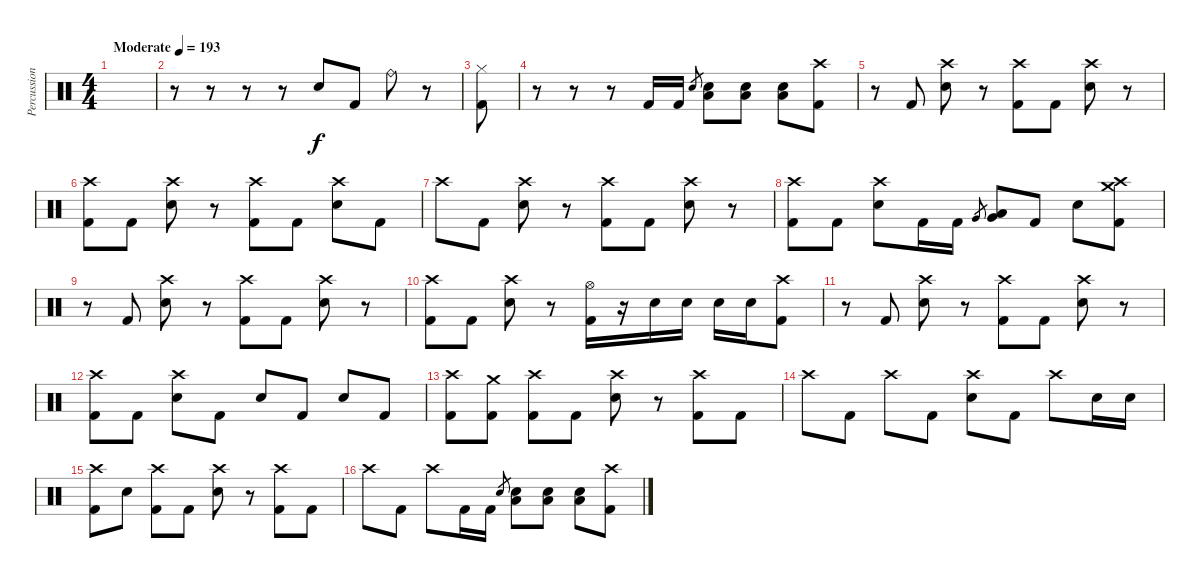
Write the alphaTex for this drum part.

\track ("Percussion" "Percussion") {instrument percussion}
\staff {score}
\articulation defaults
\ts (4 4)
\tempo (193 "Moderate")
\clef neutral
\ks c
|
r.8 r.8 r.8 r.8 "Snare (hit) 2".8 "Kick (hit) 2".8 "Ride (bell)".8 r.8 |
("Hi-Hat (closed)" "Kick (hit) 2").8 |
r.8 r.8 r.8 "Kick (hit) 2".16 "Kick (hit) 2".16 "Snare (hit) 2".8{gr} ("Low Floor Tom (hit)" "Snare (hit) 2").8 ("Low Floor Tom (hit)" "Snare (hit) 2").8 ("Low Floor Tom (hit)" "Snare (hit) 2").8 ("Crash high (hit)" "Kick (hit) 2").8 |
r.8 "Kick (hit) 2".8 ("Crash high (hit)" "Snare (hit) 2").8 r.8 ("Crash high (hit)" "Kick (hit) 2").8 "Kick (hit) 2".8 ("Crash high (hit)" "Snare (hit) 2").8 r.8 |
("Crash high (hit)" "Kick (hit) 2").8 "Kick (hit) 2".8 ("Crash high (hit)" "Snare (hit) 2").8 r.8 ("Crash high (hit)" "Kick (hit) 2").8 "Kick (hit) 2".8 ("Crash high (hit)" "Snare (hit) 2").8 "Kick (hit) 2".8 |
"Crash high (hit)".8 "Kick (hit) 2".8 ("Crash high (hit)" "Snare (hit) 2").8 r.8 ("Crash high (hit)" "Kick (hit) 2").8 "Kick (hit) 2".8 ("Crash high (hit)" "Snare (hit) 2").8 r.8 |
("Crash high (hit)" "Kick (hit) 2").8 "Kick (hit) 2".8 ("Crash high (hit)" "Snare (hit) 2").8 "Kick (hit) 2".16 "Kick (hit) 2".16 "Very Low Tom (hit)".8{gr} ("Low Floor Tom (hit)" "Very Low Tom (hit)").8 "Kick (hit) 2".8 "Snare (hit) 2".8 ("Crash high (hit)" "Crash medium (hit)" "Kick (hit) 2").8 |
r.8 "Kick (hit) 2".8 ("Crash high (hit)" "Snare (hit) 2").8 r.8 ("Crash high (hit)" "Kick (hit) 2").8 "Kick (hit) 2".8 ("Crash high (hit)" "Snare (hit) 2").8 r.8 |
("Crash high (hit)" "Kick (hit) 2").8 "Kick (hit) 2".8 ("Crash high (hit)" "Snare (hit) 2").8 r.8 ("Hi-Hat (open)" "Kick (hit) 2").16 r.16 "Snare (hit) 2".16 "Snare (hit) 2".16 "Snare (hit) 2".16 "Snare (hit) 2".16 ("Crash high (hit)" "Kick (hit) 2").8 |
r.8 "Kick (hit) 2".8 ("Crash high (hit)" "Snare (hit) 2").8 r.8 ("Crash high (hit)" "Kick (hit) 2").8 "Kick (hit) 2".8 ("Crash high (hit)" "Snare (hit) 2").8 r.8 |
("Crash high (hit)" "Kick (hit) 2").8 "Kick (hit) 2".8 ("Crash high (hit)" "Snare (hit) 2").8 "Kick (hit) 2".8 "Snare (hit) 2".8 "Kick (hit) 2".8 "Snare (hit) 2".8 "Kick (hit) 2".8 |
("Crash high (hit)" "Kick (hit) 2").8 ("Crash medium (hit)" "Kick (hit) 2").8 ("Crash high (hit)" "Kick (hit) 2").8 "Kick (hit) 2".8 ("Crash high (hit)" "Snare (hit) 2").8 r.8 ("Crash high (hit)" "Kick (hit) 2").8 "Kick (hit) 2".8 |
"Crash high (hit)".8 "Kick (hit) 2".8 "Crash high (hit)".8 "Kick (hit) 2".8 ("Crash high (hit)" "Snare (hit) 2").8 "Kick (hit) 2".8 "Crash high (hit)".8 "Snare (hit) 2".16 "Snare (hit) 2".16 |
("Crash high (hit)" "Kick (hit) 2").8 "Snare (hit) 2".8 ("Crash high (hit)" "Kick (hit) 2").8 "Kick (hit) 2".8 ("Crash high (hit)" "Snare (hit) 2").8 r.8 ("Crash high (hit)" "Kick (hit) 2").8 "Kick (hit) 2".8 |
"Crash high (hit)".8 "Kick (hit) 2".8 "Crash high (hit)".8 "Kick (hit) 2".16 "Kick (hit) 2".16 "Snare (hit) 2".8{gr} ("Low Floor Tom (hit)" "Snare (hit) 2").8 ("Low Floor Tom (hit)" "Snare (hit) 2").8 ("Low Floor Tom (hit)" "Snare (hit) 2").8 ("Crash high (hit)" "Kick (hit) 2").8
